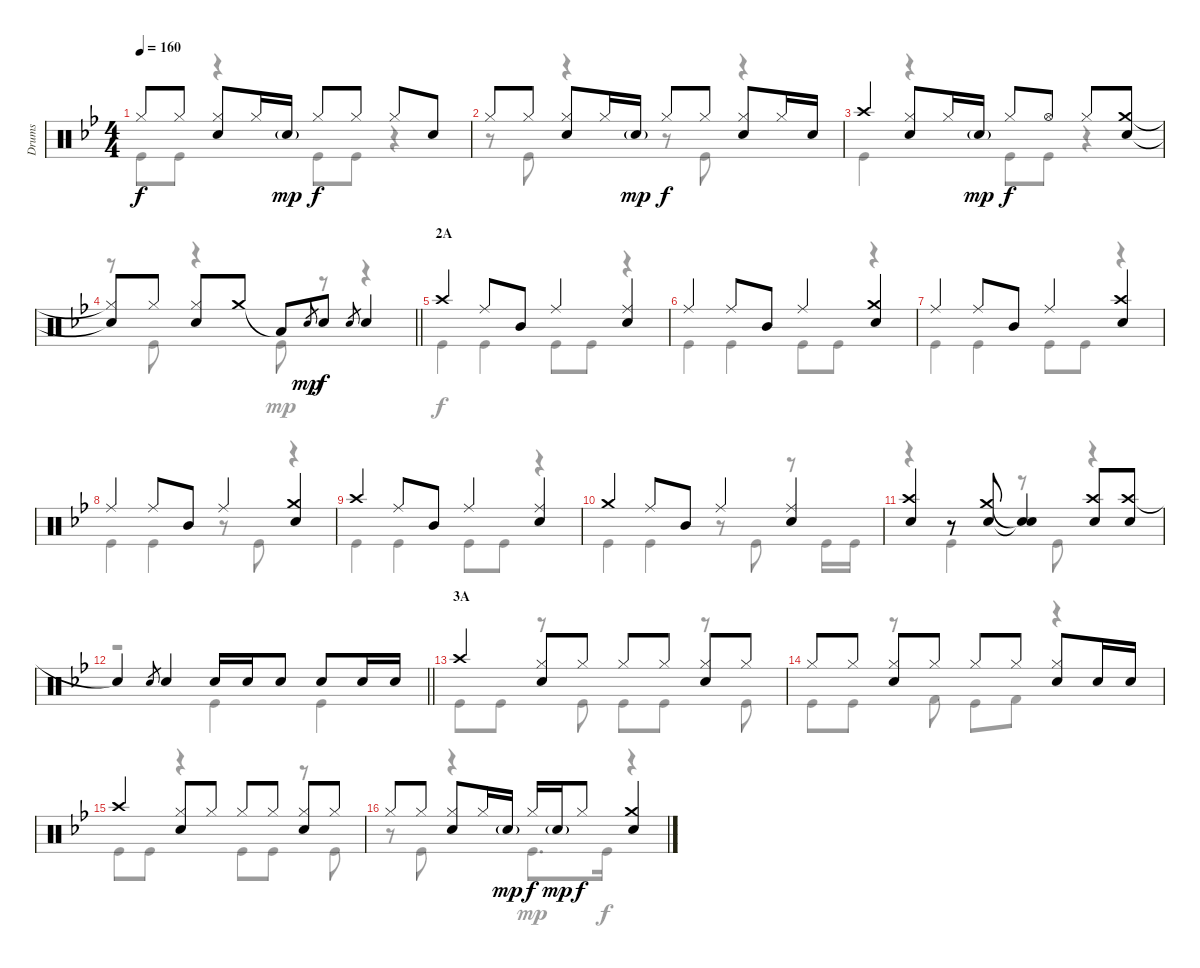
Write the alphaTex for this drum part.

\track ("Drums" "Drums") {instrument percussion}
\staff {score}
\articulation defaults
\voice
\ts (4 4)
\tempo 160
\clef neutral
\ks bb "Hi-Hat (closed)".8{dy f} "Hi-Hat (closed)".8
("Hi-Hat (closed)" "Snare (hit) 2").8 "Hi-Hat (closed)".16 "Snare (hit) 2"{g}.16{dy mp} "Hi-Hat (closed)".8{dy f} "Hi-Hat (closed)".8 "Hi-Hat (closed)".8 "Snare (hit) 2".8 |
"Hi-Hat (closed)".8 "Hi-Hat (closed)".8 ("Hi-Hat (closed)" "Snare (hit) 2").8 "Hi-Hat (closed)".16 "Snare (hit) 2"{g}.16{dy mp} "Hi-Hat (closed)".8{dy f} "Hi-Hat (closed)".8 ("Hi-Hat (closed)" "Snare (hit) 2").8 "Hi-Hat (closed)".16 "Snare (hit) 2".16 |
"Crash high (hit)".4 ("Hi-Hat (closed)" "Snare (hit) 2").8 "Hi-Hat (closed)".16 "Snare (hit) 2"{g}.16{dy mp} "Hi-Hat (closed)".8{dy f} "Hi-Hat (open)".8 "Hi-Hat (closed)".8 ("Crash medium (hit)" "Snare (hit) 2").8 |
\barLineRight lightlight
("Hi-Hat (closed)"{t} "Snare (hit)"{t}).8 "Hi-Hat (closed)".8 ("Hi-Hat (closed)" "Snare (hit) 2").8 "Crash medium (hit)".8 "Low Tom (hit)"{t}.8 "Snare (hit) 2".8{gr dy mp} "Snare (hit) 2".8{dy f} "Snare (hit) 2".8{gr} "Snare (hit) 2".4 |
\section ("" "2A")
"Crash high (hit)".4 "Ride (middle)".8 "Mid Tom (hit)".8 "Ride (middle)".4 ("Ride (middle)" "Snare (hit) 2").4 |
"Ride (middle)".4 "Ride (middle)".8 "Mid Tom (hit)".8 "Ride (middle)".4 ("Crash medium (hit)" "Snare (hit) 2").4 |
"Ride (middle)".4 "Ride (middle)".8 "Mid Tom (hit)".8 "Ride (middle)".4 ("Crash high (hit)" "Snare (hit) 2").4 |
"Ride (middle)".4 "Ride (middle)".8 "Mid Tom (hit)".8 "Ride (middle)".4 ("Crash medium (hit)" "Snare (hit) 2").4 |
"Crash high (hit)".4 "Ride (middle)".8 "Mid Tom (hit)".8 "Ride (middle)".4 ("Ride (middle)" "Snare (hit) 2").4 |
"Crash medium (hit)".4 "Ride (middle)".8 "Mid Tom (hit)".8 "Ride (middle)".4 ("Ride (middle)" "Snare (hit) 2").4 |
("Crash high (hit)" "Snare (hit) 2").4 r.8 ("Crash medium (hit)" "Snare (hit) 2").8 ("Snare (hit)"{t} "Snare (hit)"{t}).4 ("Crash high (hit)" "Snare (hit) 2").8 ("Crash high (hit)" "Snare (hit) 2").8 |
\barLineRight lightlight "Snare (hit)"{t}.4 "Snare (hit) 2".8{gr} "Snare (hit) 2".4 "Snare (hit) 2".16 "Snare (hit) 2".16 "Snare (hit) 2".8 "Snare (hit) 2".8 "Snare (hit) 2".16 "Snare (hit) 2".16
|
\section ("" "3A")
"Crash high (hit)".4 ("Hi-Hat (closed)" "Snare (hit) 2").8 "Hi-Hat (closed)".8 "Hi-Hat (closed)".8 "Hi-Hat (closed)".8 ("Hi-Hat (closed)" "Snare (hit) 2").8 "Hi-Hat (closed)".8 |
"Hi-Hat (closed)".8 "Hi-Hat (closed)".8 ("Hi-Hat (closed)" "Snare (hit) 2").8 "Hi-Hat (closed)".8 "Hi-Hat (closed)".8 "Hi-Hat (closed)".8 ("Hi-Hat (closed)" "Snare (hit) 2").8 "Snare (hit) 2".16 "Snare (hit) 2".16 |
"Crash high (hit)".4 ("Hi-Hat (closed)" "Snare (hit) 2").8 "Hi-Hat (closed)".8 "Hi-Hat (closed)".8 "Hi-Hat (closed)".8 ("Hi-Hat (closed)" "Snare (hit) 2").8 "Hi-Hat (closed)".8 |
"Hi-Hat (closed)".8 "Hi-Hat (closed)".8 ("Hi-Hat (closed)" "Snare (hit) 2").8 "Hi-Hat (closed)".16 "Snare (hit) 2"{g}.16{dy mp} "Hi-Hat (closed)".16{dy f} "Snare (hit) 2"{g}.16{dy mp} "Hi-Hat (closed)".8{dy f} ("Crash medium (hit)" "Snare (hit) 2").4
\voice
\clef neutral
\ottava regular
\simile none
\ks bb "Kick (hit)".8{dy f} "Kick (hit)".8
r.4 "Kick (hit)".8 "Kick (hit)".8 r.4 |
r.8 "Kick (hit)".8 r.4 r.8 "Kick (hit)".8 r.4 |
"Kick (hit)".4 r.4 "Kick (hit)".8 "Kick (hit)".8 r.4 |
\barLineRight lightlight
r.8 "Kick (hit)".8 r.4 "Kick (hit)".8{dy mp} r.8 r.4 |
"Kick (hit)".4{dy f} "Kick (hit)".4 "Kick (hit)".8 "Kick (hit)".8 r.4 |
"Kick (hit)".4 "Kick (hit)".4 "Kick (hit)".8 "Kick (hit)".8 r.4 |
"Kick (hit)".4 "Kick (hit)".4 "Kick (hit)".8 "Kick (hit)".8 r.4 |
"Kick (hit)".4 "Kick (hit)".4 r.8 "Kick (hit)".8 r.4 |
"Kick (hit)".4 "Kick (hit)".4 "Kick (hit)".8 "Kick (hit)".8 r.4 |
"Kick (hit)".4 "Kick (hit)".4 r.8 "Kick (hit)".8 r.8 "Kick (hit)".16 "Kick (hit)".16 |
r.4 "Kick (hit)".4 r.8 "Kick (hit)".8 r.4 |
\barLineRight lightlight
r.2 "Kick (hit)".4 "Kick (hit)".4 |
"Kick (hit)".8 "Kick (hit)".8 r.8 "Kick (hit)".8 "Kick (hit)".8 "Kick (hit)".8 r.8 "Kick (hit)".8 |
"Kick (hit)".8 "Kick (hit)".8 r.8 "Kick (hit) 2".8 "Kick (hit)".8 "Kick (hit) 2".8 r.4 |
"Kick (hit)".8 "Kick (hit)".8 r.4 "Kick (hit)".8 "Kick (hit)".8 r.8 "Kick (hit)".8 |
r.8 "Kick (hit)".8 r.4 "Kick (hit)".8{d dy mp} "Kick (hit)".16{dy f} r.4
